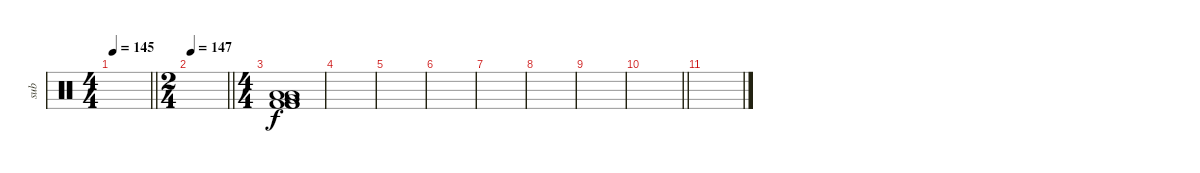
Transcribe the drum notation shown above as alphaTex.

\track ("sub" "sub") {instrument percussion}
\staff {score}
\articulation defaults
\ts (4 4)
\tempo 145
\clef neutral
\barLineRight lightlight
\ks c
|
\ts (2 4)
\tempo 147
\barLineRight lightlight
|
\ts (4 4)
\section ("" "")
("Low Floor Tom (hit)" "Low Floor Tom (hit)" "Very Low Tom (hit)" "Kick (hit) 2" "Kick (hit) 2" "Kick (hit) 2").1 |
|
|
|
|
|
|
\barLineRight lightlight
|
\section ("" "")
